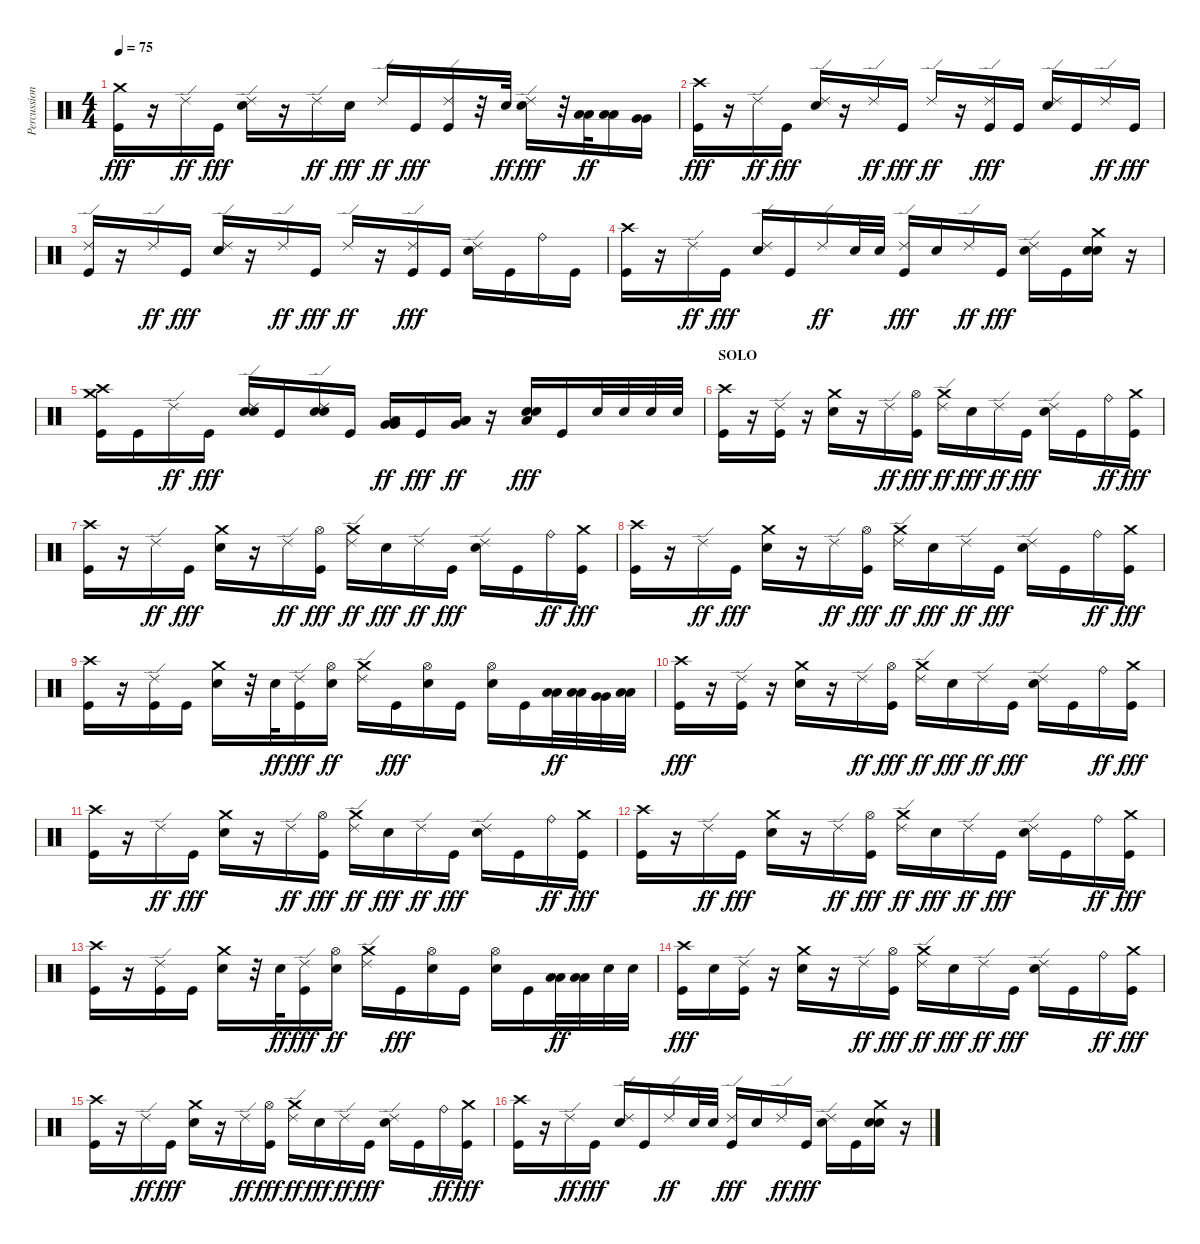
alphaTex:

\track ("Percussion" "Percussion") {instrument percussion}
\staff {score}
\articulation defaults
\ts (4 4)
\tempo 75
\clef neutral
\ks c
("Crash medium (hit)" "Kick (hit)").16{dy fff} r.16 "Ride (edge) 2".16{dy ff} "Kick (hit)".16{dy fff} ("Ride (edge) 2" "Electric Snare (hit)").16 r.16 "Ride (edge) 2".16{dy ff} "Electric Snare (hit)".16{dy fff} "Ride (edge) 2".16{dy ff} "Kick (hit)".16{dy fff} ("Ride (edge) 2" "Kick (hit)").16 r.32 "Electric Snare (hit)".32{dy ff} ("Ride (edge) 2" "Electric Snare (hit)").16{dy fff} r.32 ("Low Tom (hit)" "Low Tom (hit)").32{dy ff} ("Low Tom (hit)" "Low Tom (hit)").16 ("Very Low Tom (hit)" "Very Low Tom (hit)").16 |
("Crash high (hit)" "Kick (hit)").16{dy fff} r.16 "Ride (edge) 2".16{dy ff} "Kick (hit)".16{dy fff} ("Ride (edge) 2" "Electric Snare (hit)").16 r.16 "Ride (edge) 2".16{dy ff} "Kick (hit)".16{dy fff} "Ride (edge) 2".16{dy ff} r.16 ("Ride (edge) 2" "Kick (hit)").16{dy fff} "Kick (hit)".16 ("Ride (edge) 2" "Electric Snare (hit)").16 "Kick (hit)".16 "Ride (edge) 2".16{dy ff} "Kick (hit)".16{dy fff} |
("Ride (edge) 2" "Kick (hit)").16 r.16 "Ride (edge) 2".16{dy ff} "Kick (hit)".16{dy fff} ("Ride (edge) 2" "Electric Snare (hit)").16 r.16 "Ride (edge) 2".16{dy ff} "Kick (hit)".16{dy fff} "Ride (edge) 2".16{dy ff} r.16 ("Ride (edge) 2" "Kick (hit)").16{dy fff} "Kick (hit)".16 ("Ride (edge) 2" "Electric Snare (hit)").16 "Kick (hit)".16 "Ride (bell)".16 "Kick (hit)".16 |
("Crash high (hit)" "Kick (hit)").16 r.16 "Ride (edge) 2".16{dy ff} "Kick (hit)".16{dy fff} ("Ride (edge) 2" "Electric Snare (hit)").16 "Kick (hit)".16 "Ride (edge) 2".16{dy ff} "Electric Snare (hit)".32 "Electric Snare (hit)".32 ("Ride (edge) 2" "Kick (hit)").16{dy fff} "Electric Snare (hit)".16 "Ride (edge) 2".16{dy ff} "Kick (hit)".16{dy fff} ("Ride (edge) 2" "Electric Snare (hit)").16 "Kick (hit)".16 ("Crash medium (hit)" "Electric Snare (hit)" "Electric Snare (hit)").16 r.16 |
("Crash high (hit)" "Crash medium (hit)" "Kick (hit)").16 "Kick (hit)".16 "Ride (edge) 2".16{dy ff} "Kick (hit)".16{dy fff} ("Ride (edge) 2" "Electric Snare (hit)" "Electric Snare (hit)").16 "Kick (hit)".16 ("Ride (edge) 2" "Electric Snare (hit)" "Electric Snare (hit)").16 "Kick (hit)".16 ("Very Low Tom (hit)" "Very Low Tom (hit)" "Low Floor Tom (hit)").16{dy ff} "Kick (hit)".16{dy fff} ("Low Floor Tom (hit)" "Very Low Tom (hit)" "Low Floor Tom (hit)").16{dy ff} r.16 ("Electric Snare (hit)" "Low Floor Tom (hit)" "Electric Snare (hit)").16{dy fff} "Kick (hit)".16 "Electric Snare (hit)".32 "Electric Snare (hit)".32 "Electric Snare (hit)".32 "Electric Snare (hit)".32 |
\section ("" "SOLO")
("Crash high (hit)" "Kick (hit)").16 r.16 ("Ride (edge) 2" "Kick (hit)").16 r.16 ("Crash medium (hit)" "Electric Snare (hit)").16 r.16 "Ride (edge) 2".16{dy ff} ("Hi-Hat (open)" "Kick (hit)").16{dy fff} ("Crash medium (hit)" "Ride (edge) 2").16{dy ff} "Electric Snare (hit)".16{dy fff} "Ride (edge) 2".16{dy ff} "Kick (hit)".16{dy fff} ("Ride (edge) 2" "Electric Snare (hit)").16 "Kick (hit)".16 "Ride (bell)".16{dy ff} ("Crash medium (hit)" "Kick (hit)").16{dy fff} |
("Crash high (hit)" "Kick (hit)").16 r.16 "Ride (edge) 2".16{dy ff} "Kick (hit)".16{dy fff} ("Crash medium (hit)" "Electric Snare (hit)").16 r.16 "Ride (edge) 2".16{dy ff} ("Hi-Hat (open)" "Kick (hit)").16{dy fff} ("Crash medium (hit)" "Ride (edge) 2").16{dy ff} "Electric Snare (hit)".16{dy fff} "Ride (edge) 2".16{dy ff} "Kick (hit)".16{dy fff} ("Ride (edge) 2" "Electric Snare (hit)").16 "Kick (hit)".16 "Ride (bell)".16{dy ff} ("Crash medium (hit)" "Kick (hit)").16{dy fff} |
("Crash high (hit)" "Kick (hit)").16 r.16 "Ride (edge) 2".16{dy ff} "Kick (hit)".16{dy fff} ("Crash medium (hit)" "Electric Snare (hit)").16 r.16 "Ride (edge) 2".16{dy ff} ("Hi-Hat (open)" "Kick (hit)").16{dy fff} ("Crash medium (hit)" "Ride (edge) 2").16{dy ff} "Electric Snare (hit)".16{dy fff} "Ride (edge) 2".16{dy ff} "Kick (hit)".16{dy fff} ("Ride (edge) 2" "Electric Snare (hit)").16 "Kick (hit)".16 "Ride (bell)".16{dy ff} ("Crash medium (hit)" "Kick (hit)").16{dy fff} |
("Crash high (hit)" "Kick (hit)").16 r.16 ("Ride (edge) 2" "Kick (hit)").16 "Kick (hit)".16 ("Crash medium (hit)" "Electric Snare (hit)").16 r.32 "Electric Snare (hit)".32{dy ff} ("Ride (edge) 2" "Kick (hit)").16{dy fff} ("Hi-Hat (open)" "Electric Snare (hit)").16{dy ff} ("Crash medium (hit)" "Ride (edge) 2").16 "Kick (hit)".16{dy fff} ("Hi-Hat (open)" "Electric Snare (hit)").16 "Kick (hit)".16 ("Hi-Hat (open)" "Electric Snare (hit)").16 "Kick (hit)".16 ("Low Tom (hit)" "Low Tom (hit)").32{dy ff} ("Low Tom (hit)" "Low Tom (hit)").32 ("Very Low Tom (hit)" "Very Low Tom (hit)").32 ("Low Floor Tom (hit)" "Low Floor Tom (hit)").32 |
("Crash high (hit)" "Kick (hit)").16{dy fff} r.16 ("Ride (edge) 2" "Kick (hit)").16 r.16 ("Crash medium (hit)" "Electric Snare (hit)").16 r.16 "Ride (edge) 2".16{dy ff} ("Hi-Hat (open)" "Kick (hit)").16{dy fff} ("Crash medium (hit)" "Ride (edge) 2").16{dy ff} "Electric Snare (hit)".16{dy fff} "Ride (edge) 2".16{dy ff} "Kick (hit)".16{dy fff} ("Ride (edge) 2" "Electric Snare (hit)").16 "Kick (hit)".16 "Ride (bell)".16{dy ff} ("Crash medium (hit)" "Kick (hit)").16{dy fff} |
("Crash high (hit)" "Kick (hit)").16 r.16 "Ride (edge) 2".16{dy ff} "Kick (hit)".16{dy fff} ("Crash medium (hit)" "Electric Snare (hit)").16 r.16 "Ride (edge) 2".16{dy ff} ("Hi-Hat (open)" "Kick (hit)").16{dy fff} ("Crash medium (hit)" "Ride (edge) 2").16{dy ff} "Electric Snare (hit)".16{dy fff} "Ride (edge) 2".16{dy ff} "Kick (hit)".16{dy fff} ("Ride (edge) 2" "Electric Snare (hit)").16 "Kick (hit)".16 "Ride (bell)".16{dy ff} ("Crash medium (hit)" "Kick (hit)").16{dy fff} |
("Crash high (hit)" "Kick (hit)").16 r.16 "Ride (edge) 2".16{dy ff} "Kick (hit)".16{dy fff} ("Crash medium (hit)" "Electric Snare (hit)").16 r.16 "Ride (edge) 2".16{dy ff} ("Hi-Hat (open)" "Kick (hit)").16{dy fff} ("Crash medium (hit)" "Ride (edge) 2").16{dy ff} "Electric Snare (hit)".16{dy fff} "Ride (edge) 2".16{dy ff} "Kick (hit)".16{dy fff} ("Ride (edge) 2" "Electric Snare (hit)").16 "Kick (hit)".16 "Ride (bell)".16{dy ff} ("Crash medium (hit)" "Kick (hit)").16{dy fff} |
("Crash high (hit)" "Kick (hit)").16 r.16 ("Ride (edge) 2" "Kick (hit)").16 "Kick (hit)".16 ("Crash medium (hit)" "Electric Snare (hit)").16 r.32 "Electric Snare (hit)".32{dy ff} ("Ride (edge) 2" "Kick (hit)").16{dy fff} ("Hi-Hat (open)" "Electric Snare (hit)").16{dy ff} ("Crash medium (hit)" "Ride (edge) 2").16 "Kick (hit)".16{dy fff} ("Hi-Hat (open)" "Electric Snare (hit)").16 "Kick (hit)".16 ("Hi-Hat (open)" "Electric Snare (hit)").16 "Kick (hit)".16 ("Low Tom (hit)" "Low Tom (hit)").32{dy ff} ("Low Tom (hit)" "Low Tom (hit)").32 "Electric Snare (hit)".32 "Electric Snare (hit)".32 |
("Crash high (hit)" "Kick (hit)").16{dy fff} "Electric Snare (hit)".16 ("Ride (edge) 2" "Kick (hit)").16 r.16 ("Crash medium (hit)" "Electric Snare (hit)").16 r.16 "Ride (edge) 2".16{dy ff} ("Hi-Hat (open)" "Kick (hit)").16{dy fff} ("Crash medium (hit)" "Ride (edge) 2").16{dy ff} "Electric Snare (hit)".16{dy fff} "Ride (edge) 2".16{dy ff} "Kick (hit)".16{dy fff} ("Ride (edge) 2" "Electric Snare (hit)").16 "Kick (hit)".16 "Ride (bell)".16{dy ff} ("Crash medium (hit)" "Kick (hit)").16{dy fff} |
("Crash high (hit)" "Kick (hit)").16 r.16 "Ride (edge) 2".16{dy ff} "Kick (hit)".16{dy fff} ("Crash medium (hit)" "Electric Snare (hit)").16 r.16 "Ride (edge) 2".16{dy ff} ("Hi-Hat (open)" "Kick (hit)").16{dy fff} ("Crash medium (hit)" "Ride (edge) 2").16{dy ff} "Electric Snare (hit)".16{dy fff} "Ride (edge) 2".16{dy ff} "Kick (hit)".16{dy fff} ("Ride (edge) 2" "Electric Snare (hit)").16 "Kick (hit)".16 "Ride (bell)".16{dy ff} ("Crash medium (hit)" "Kick (hit)").16{dy fff} |
("Crash high (hit)" "Kick (hit)").16 r.16 "Ride (edge) 2".16{dy ff} "Kick (hit)".16{dy fff} ("Ride (edge) 2" "Electric Snare (hit)").16 "Kick (hit)".16 "Ride (edge) 2".16{dy ff} "Electric Snare (hit)".32 "Electric Snare (hit)".32 ("Ride (edge) 2" "Kick (hit)").16{dy fff} "Electric Snare (hit)".16 "Ride (edge) 2".16{dy ff} "Kick (hit)".16{dy fff} ("Ride (edge) 2" "Electric Snare (hit)").16 "Kick (hit)".16 ("Crash medium (hit)" "Electric Snare (hit)" "Electric Snare (hit)").16 r.16
